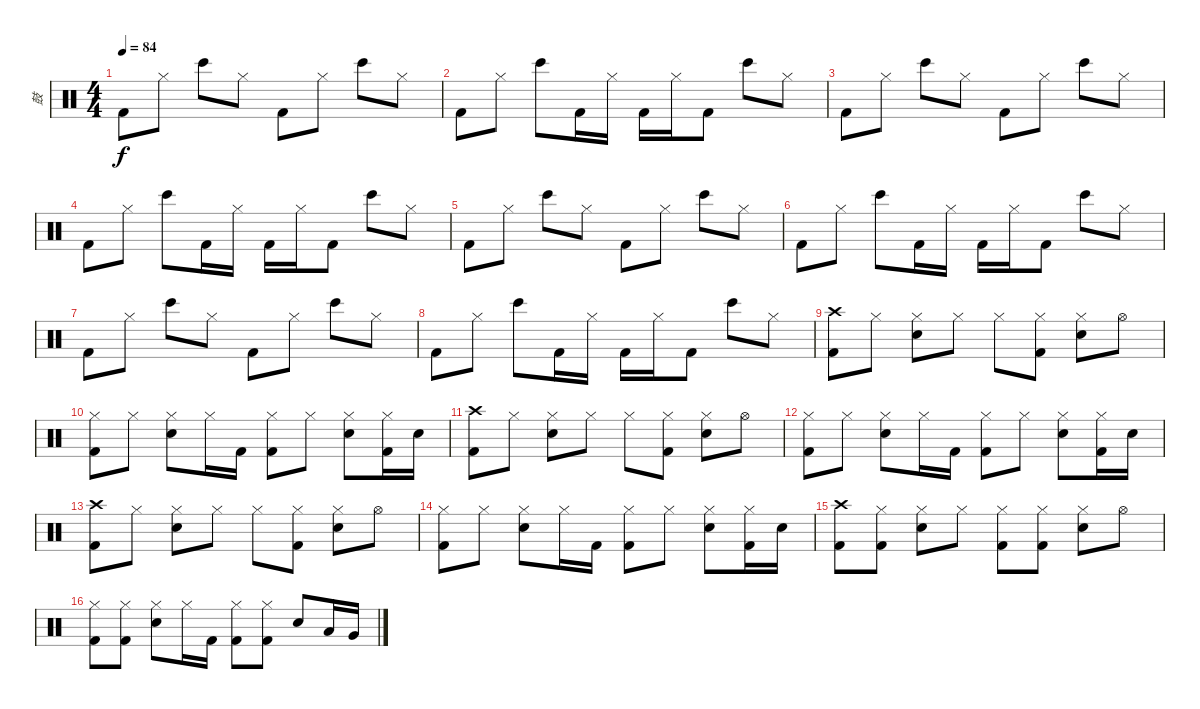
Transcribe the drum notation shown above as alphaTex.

\track ("鼓" "鼓") {instrument percussion}
\staff {score}
\articulation defaults
\ts (4 4)
\tempo 84
\clef neutral
\ks c "Kick (hit) 2".8{dy f} "Hi-Hat (closed)".8 "Bongo High (hit)".8 "Hi-Hat (closed)".8 "Kick (hit) 2".8 "Hi-Hat (closed)".8 "Bongo High (hit)".8 "Hi-Hat (closed)".8
|
"Kick (hit) 2".8 "Hi-Hat (closed)".8 "Bongo High (hit)".8 "Kick (hit) 2".16 "Hi-Hat (closed)".16 "Kick (hit) 2".16 "Hi-Hat (closed)".16 "Kick (hit) 2".8 "Bongo High (hit)".8 "Hi-Hat (closed)".8 |
"Kick (hit) 2".8 "Hi-Hat (closed)".8 "Bongo High (hit)".8 "Hi-Hat (closed)".8 "Kick (hit) 2".8 "Hi-Hat (closed)".8 "Bongo High (hit)".8 "Hi-Hat (closed)".8 |
"Kick (hit) 2".8 "Hi-Hat (closed)".8 "Bongo High (hit)".8 "Kick (hit) 2".16 "Hi-Hat (closed)".16 "Kick (hit) 2".16 "Hi-Hat (closed)".16 "Kick (hit) 2".8 "Bongo High (hit)".8 "Hi-Hat (closed)".8 |
"Kick (hit) 2".8 "Hi-Hat (closed)".8 "Bongo High (hit)".8 "Hi-Hat (closed)".8 "Kick (hit) 2".8 "Hi-Hat (closed)".8 "Bongo High (hit)".8 "Hi-Hat (closed)".8 |
"Kick (hit) 2".8 "Hi-Hat (closed)".8 "Bongo High (hit)".8 "Kick (hit) 2".16 "Hi-Hat (closed)".16 "Kick (hit) 2".16 "Hi-Hat (closed)".16 "Kick (hit) 2".8 "Bongo High (hit)".8 "Hi-Hat (closed)".8 |
"Kick (hit) 2".8 "Hi-Hat (closed)".8 "Bongo High (hit)".8 "Hi-Hat (closed)".8 "Kick (hit) 2".8 "Hi-Hat (closed)".8 "Bongo High (hit)".8 "Hi-Hat (closed)".8 |
"Kick (hit) 2".8 "Hi-Hat (closed)".8 "Bongo High (hit)".8 "Kick (hit) 2".16 "Hi-Hat (closed)".16 "Kick (hit) 2".16 "Hi-Hat (closed)".16 "Kick (hit) 2".8 "Bongo High (hit)".8 "Hi-Hat (closed)".8 |
("Crash high (hit)" "Kick (hit) 2").8 "Hi-Hat (closed)".8 ("Hi-Hat (closed)" "Electric Snare (hit)").8 "Hi-Hat (closed)".8 "Hi-Hat (closed)".8 ("Hi-Hat (closed)" "Kick (hit) 2").8 ("Hi-Hat (closed)" "Electric Snare (hit)").8 "Hi-Hat (open)".8 |
("Hi-Hat (closed)" "Kick (hit) 2").8 "Hi-Hat (closed)".8 ("Hi-Hat (closed)" "Electric Snare (hit)").8 "Hi-Hat (closed)".16 "Kick (hit) 2".16 ("Hi-Hat (closed)" "Kick (hit) 2").8 "Hi-Hat (closed)".8 ("Hi-Hat (closed)" "Electric Snare (hit)").8 ("Hi-Hat (closed)" "Kick (hit) 2").16 "Electric Snare (hit)".16 |
("Crash high (hit)" "Kick (hit) 2").8 "Hi-Hat (closed)".8 ("Hi-Hat (closed)" "Electric Snare (hit)").8 "Hi-Hat (closed)".8 "Hi-Hat (closed)".8 ("Hi-Hat (closed)" "Kick (hit) 2").8 ("Hi-Hat (closed)" "Electric Snare (hit)").8 "Hi-Hat (open)".8 |
("Hi-Hat (closed)" "Kick (hit) 2").8 "Hi-Hat (closed)".8 ("Hi-Hat (closed)" "Electric Snare (hit)").8 "Hi-Hat (closed)".16 "Kick (hit) 2".16 ("Hi-Hat (closed)" "Kick (hit) 2").8 "Hi-Hat (closed)".8 ("Hi-Hat (closed)" "Electric Snare (hit)").8 ("Hi-Hat (closed)" "Kick (hit) 2").16 "Electric Snare (hit)".16 |
("Crash high (hit)" "Kick (hit) 2").8 "Hi-Hat (closed)".8 ("Hi-Hat (closed)" "Electric Snare (hit)").8 "Hi-Hat (closed)".8 "Hi-Hat (closed)".8 ("Hi-Hat (closed)" "Kick (hit) 2").8 ("Hi-Hat (closed)" "Electric Snare (hit)").8 "Hi-Hat (open)".8 |
("Hi-Hat (closed)" "Kick (hit) 2").8 "Hi-Hat (closed)".8 ("Hi-Hat (closed)" "Electric Snare (hit)").8 "Hi-Hat (closed)".16 "Kick (hit) 2".16 ("Hi-Hat (closed)" "Kick (hit) 2").8 "Hi-Hat (closed)".8 ("Hi-Hat (closed)" "Electric Snare (hit)").8 ("Hi-Hat (closed)" "Kick (hit) 2").16 "Electric Snare (hit)".16 |
("Crash high (hit)" "Kick (hit) 2").8 ("Hi-Hat (closed)" "Kick (hit) 2").8 ("Hi-Hat (closed)" "Electric Snare (hit)").8 "Hi-Hat (closed)".8 ("Hi-Hat (closed)" "Kick (hit) 2").8 ("Hi-Hat (closed)" "Kick (hit) 2").8 ("Hi-Hat (closed)" "Electric Snare (hit)").8 "Hi-Hat (open)".8 |
("Hi-Hat (closed)" "Kick (hit) 2").8 ("Hi-Hat (closed)" "Kick (hit) 2").8 ("Hi-Hat (closed)" "Electric Snare (hit)").8 "Hi-Hat (closed)".16 "Kick (hit) 2".16 ("Hi-Hat (closed)" "Kick (hit) 2").8 ("Hi-Hat (closed)" "Kick (hit) 2").8 "Electric Snare (hit)".8 "Low Tom (hit)".16 "Very Low Tom (hit)".16
